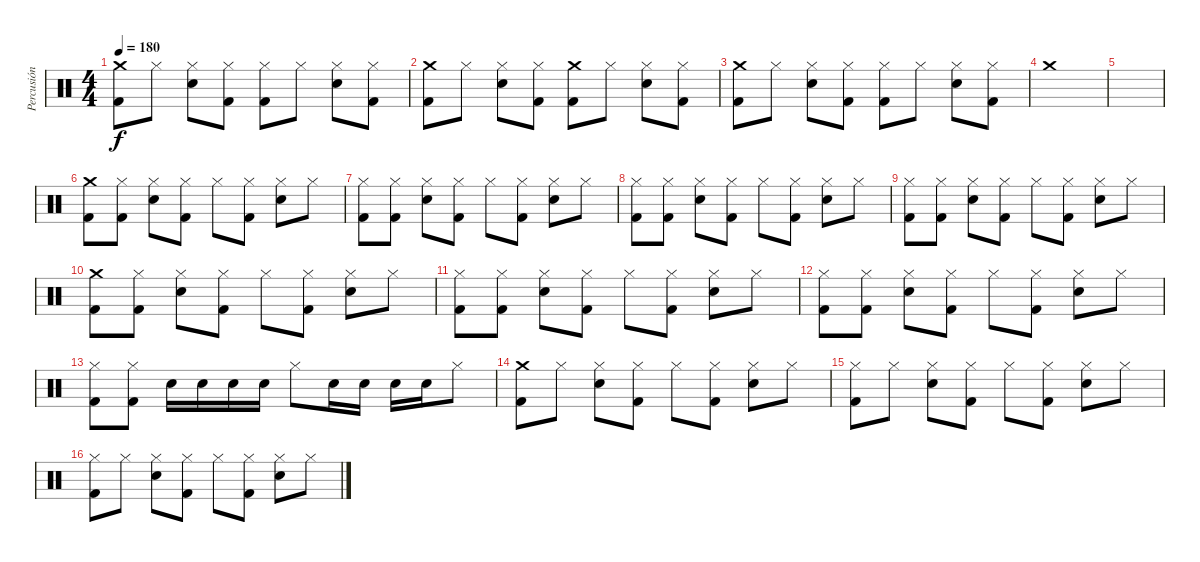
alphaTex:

\track ("Percusión" "Percusión") {instrument percussion}
\staff {score}
\articulation defaults
\ts (4 4)
\tempo 180
\clef neutral
\ks c
("Crash medium (hit)" "Kick (hit) 2").8{dy f} "Hi-Hat (closed)".8 ("Hi-Hat (closed)" "Electric Snare (hit)").8 ("Hi-Hat (closed)" "Kick (hit) 2").8 ("Hi-Hat (closed)" "Kick (hit) 2").8 "Hi-Hat (closed)".8 ("Hi-Hat (closed)" "Electric Snare (hit)").8 ("Hi-Hat (closed)" "Kick (hit) 2").8 |
("Crash medium (hit)" "Kick (hit) 2").8 "Hi-Hat (closed)".8 ("Hi-Hat (closed)" "Electric Snare (hit)").8 ("Hi-Hat (closed)" "Kick (hit) 2").8 ("Crash medium (hit)" "Kick (hit) 2").8 "Hi-Hat (closed)".8 ("Hi-Hat (closed)" "Electric Snare (hit)").8 ("Hi-Hat (closed)" "Kick (hit) 2").8 |
("Crash medium (hit)" "Kick (hit) 2").8 "Hi-Hat (closed)".8 ("Hi-Hat (closed)" "Electric Snare (hit)").8 ("Hi-Hat (closed)" "Kick (hit) 2").8 ("Hi-Hat (closed)" "Kick (hit) 2").8 "Hi-Hat (closed)".8 ("Hi-Hat (closed)" "Electric Snare (hit)").8 ("Hi-Hat (closed)" "Kick (hit) 2").8 |
"Crash medium (hit)".1 |
|
("Crash medium (hit)" "Kick (hit) 2").8 ("Hi-Hat (closed)" "Kick (hit) 2").8 ("Hi-Hat (closed)" "Electric Snare (hit)").8 ("Hi-Hat (closed)" "Kick (hit) 2").8 "Hi-Hat (closed)".8 ("Hi-Hat (closed)" "Kick (hit) 2").8 ("Hi-Hat (closed)" "Electric Snare (hit)").8 "Hi-Hat (closed)".8 |
("Hi-Hat (closed)" "Kick (hit) 2").8 ("Hi-Hat (closed)" "Kick (hit) 2").8 ("Hi-Hat (closed)" "Electric Snare (hit)").8 ("Hi-Hat (closed)" "Kick (hit) 2").8 "Hi-Hat (closed)".8 ("Hi-Hat (closed)" "Kick (hit) 2").8 ("Hi-Hat (closed)" "Electric Snare (hit)").8 "Hi-Hat (closed)".8 |
("Hi-Hat (closed)" "Kick (hit) 2").8 ("Hi-Hat (closed)" "Kick (hit) 2").8 ("Hi-Hat (closed)" "Electric Snare (hit)").8 ("Hi-Hat (closed)" "Kick (hit) 2").8 "Hi-Hat (closed)".8 ("Hi-Hat (closed)" "Kick (hit) 2").8 ("Hi-Hat (closed)" "Electric Snare (hit)").8 "Hi-Hat (closed)".8 |
("Hi-Hat (closed)" "Kick (hit) 2").8 ("Hi-Hat (closed)" "Kick (hit) 2").8 ("Hi-Hat (closed)" "Electric Snare (hit)").8 ("Hi-Hat (closed)" "Kick (hit) 2").8 "Hi-Hat (closed)".8 ("Hi-Hat (closed)" "Kick (hit) 2").8 ("Hi-Hat (closed)" "Electric Snare (hit)").8 "Hi-Hat (closed)".8 |
("Crash medium (hit)" "Kick (hit) 2").8 ("Hi-Hat (closed)" "Kick (hit) 2").8 ("Hi-Hat (closed)" "Electric Snare (hit)").8 ("Hi-Hat (closed)" "Kick (hit) 2").8 "Hi-Hat (closed)".8 ("Hi-Hat (closed)" "Kick (hit) 2").8 ("Hi-Hat (closed)" "Electric Snare (hit)").8 "Hi-Hat (closed)".8 |
("Hi-Hat (closed)" "Kick (hit) 2").8 ("Hi-Hat (closed)" "Kick (hit) 2").8 ("Hi-Hat (closed)" "Electric Snare (hit)").8 ("Hi-Hat (closed)" "Kick (hit) 2").8 "Hi-Hat (closed)".8 ("Hi-Hat (closed)" "Kick (hit) 2").8 ("Hi-Hat (closed)" "Electric Snare (hit)").8 "Hi-Hat (closed)".8 |
("Hi-Hat (closed)" "Kick (hit) 2").8 ("Hi-Hat (closed)" "Kick (hit) 2").8 ("Hi-Hat (closed)" "Electric Snare (hit)").8 ("Hi-Hat (closed)" "Kick (hit) 2").8 "Hi-Hat (closed)".8 ("Hi-Hat (closed)" "Kick (hit) 2").8 ("Hi-Hat (closed)" "Electric Snare (hit)").8 "Hi-Hat (closed)".8 |
("Hi-Hat (closed)" "Kick (hit) 2").8 ("Hi-Hat (closed)" "Kick (hit) 2").8 "Electric Snare (hit)".16 "Electric Snare (hit)".16 "Electric Snare (hit)".16 "Electric Snare (hit)".16 "Hi-Hat (closed)".8 "Electric Snare (hit)".16 "Electric Snare (hit)".16 "Electric Snare (hit)".16 "Electric Snare (hit)".16 "Hi-Hat (closed)".8 |
("Crash medium (hit)" "Kick (hit) 2").8 "Hi-Hat (closed)".8 ("Hi-Hat (closed)" "Electric Snare (hit)").8 ("Hi-Hat (closed)" "Kick (hit) 2").8 "Hi-Hat (closed)".8 ("Hi-Hat (closed)" "Kick (hit) 2").8 ("Hi-Hat (closed)" "Electric Snare (hit)").8 "Hi-Hat (closed)".8 |
("Hi-Hat (closed)" "Kick (hit) 2").8 "Hi-Hat (closed)".8 ("Hi-Hat (closed)" "Electric Snare (hit)").8 ("Hi-Hat (closed)" "Kick (hit) 2").8 "Hi-Hat (closed)".8 ("Hi-Hat (closed)" "Kick (hit) 2").8 ("Hi-Hat (closed)" "Electric Snare (hit)").8 "Hi-Hat (closed)".8 |
("Hi-Hat (closed)" "Kick (hit) 2").8 "Hi-Hat (closed)".8 ("Hi-Hat (closed)" "Electric Snare (hit)").8 ("Hi-Hat (closed)" "Kick (hit) 2").8 "Hi-Hat (closed)".8 ("Hi-Hat (closed)" "Kick (hit) 2").8 ("Hi-Hat (closed)" "Electric Snare (hit)").8 "Hi-Hat (closed)".8
